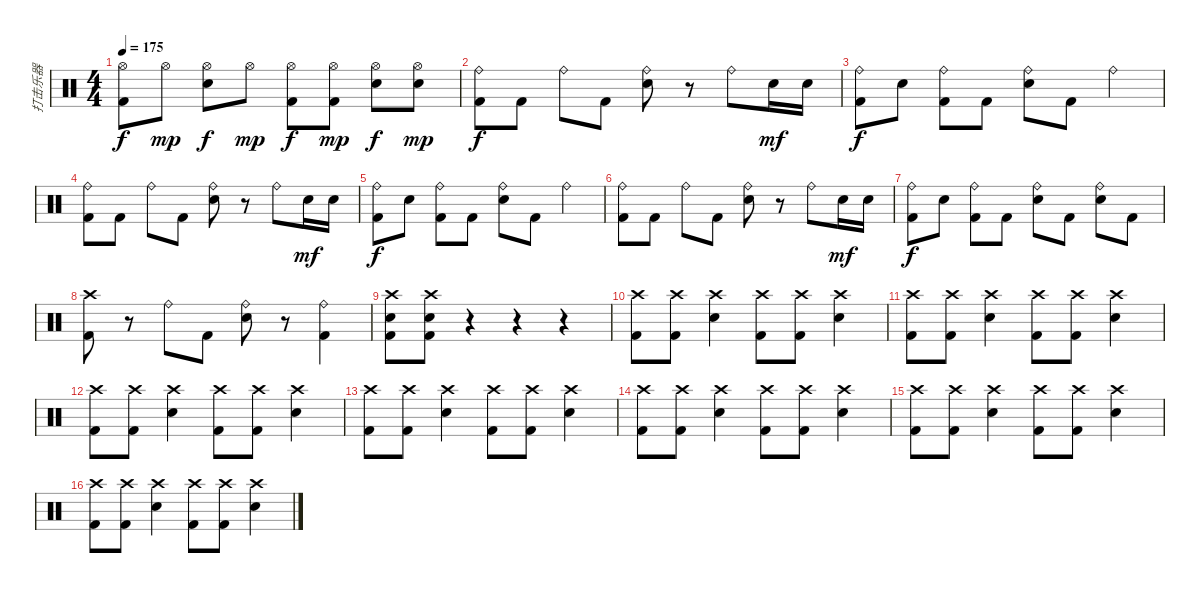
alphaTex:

\track ("打击乐器" "打击乐器") {instrument percussion}
\staff {score}
\articulation defaults
\ts (4 4)
\tempo 175
\clef neutral
\ks c
("Hi-Hat (open)" "Kick (hit) 2").8{dy f} "Hi-Hat (open)".8{dy mp} ("Hi-Hat (open)" "Electric Snare (hit)").8{dy f} "Hi-Hat (open)".8{dy mp} ("Hi-Hat (open)" "Kick (hit) 2").8{dy f} ("Hi-Hat (open)" "Kick (hit) 2").8{dy mp} ("Hi-Hat (open)" "Electric Snare (hit)").8{dy f} ("Hi-Hat (open)" "Electric Snare (hit)").8{dy mp} |
("Ride (bell)" "Kick (hit) 2").8{dy f} "Kick (hit) 2".8 "Ride (bell)".8 "Kick (hit) 2".8 ("Ride (bell)" "Electric Snare (hit)").8 r.8 "Ride (bell)".8 "Electric Snare (hit)".16{dy mf} "Electric Snare (hit)".16 |
("Ride (bell)" "Kick (hit) 2").8{dy f} "Electric Snare (hit)".8 ("Ride (bell)" "Kick (hit) 2").8 "Kick (hit) 2".8 ("Ride (bell)" "Electric Snare (hit)").8 "Kick (hit) 2".8 "Ride (bell)".4 |
("Ride (bell)" "Kick (hit) 2").8 "Kick (hit) 2".8 "Ride (bell)".8 "Kick (hit) 2".8 ("Ride (bell)" "Electric Snare (hit)").8 r.8 "Ride (bell)".8 "Electric Snare (hit)".16{dy mf} "Electric Snare (hit)".16 |
("Ride (bell)" "Kick (hit) 2").8{dy f} "Electric Snare (hit)".8 ("Ride (bell)" "Kick (hit) 2").8 "Kick (hit) 2".8 ("Ride (bell)" "Electric Snare (hit)").8 "Kick (hit) 2".8 "Ride (bell)".4 |
("Ride (bell)" "Kick (hit) 2").8 "Kick (hit) 2".8 "Ride (bell)".8 "Kick (hit) 2".8 ("Ride (bell)" "Electric Snare (hit)").8 r.8 "Ride (bell)".8 "Electric Snare (hit)".16{dy mf} "Electric Snare (hit)".16 |
("Ride (bell)" "Kick (hit) 2").8{dy f} "Electric Snare (hit)".8 ("Ride (bell)" "Kick (hit) 2").8 "Kick (hit) 2".8 ("Ride (bell)" "Electric Snare (hit)").8 "Kick (hit) 2".8 ("Ride (bell)" "Electric Snare (hit)").8 "Kick (hit) 2".8 |
("Crash high (hit)" "Kick (hit) 2").8 r.8 "Ride (bell)".8 "Kick (hit) 2".8 ("Ride (bell)" "Electric Snare (hit)").8 r.8 ("Ride (bell)" "Kick (hit) 2").4 |
("Crash high (hit)" "Electric Snare (hit)" "Kick (hit) 2").8 ("Crash high (hit)" "Electric Snare (hit)" "Kick (hit) 2").8 r.4 r.4 r.4 |
("Crash high (hit)" "Kick (hit) 2").8 ("Crash high (hit)" "Kick (hit) 2").8 ("Crash high (hit)" "Electric Snare (hit)").4 ("Crash high (hit)" "Kick (hit) 2").8 ("Crash high (hit)" "Kick (hit) 2").8 ("Crash high (hit)" "Electric Snare (hit)").4 |
("Crash high (hit)" "Kick (hit) 2").8 ("Crash high (hit)" "Kick (hit) 2").8 ("Crash high (hit)" "Electric Snare (hit)").4 ("Crash high (hit)" "Kick (hit) 2").8 ("Crash high (hit)" "Kick (hit) 2").8 ("Crash high (hit)" "Electric Snare (hit)").4 |
("Crash high (hit)" "Kick (hit) 2").8 ("Crash high (hit)" "Kick (hit) 2").8 ("Crash high (hit)" "Electric Snare (hit)").4 ("Crash high (hit)" "Kick (hit) 2").8 ("Crash high (hit)" "Kick (hit) 2").8 ("Crash high (hit)" "Electric Snare (hit)").4 |
("Crash high (hit)" "Kick (hit) 2").8 ("Crash high (hit)" "Kick (hit) 2").8 ("Crash high (hit)" "Electric Snare (hit)").4 ("Crash high (hit)" "Kick (hit) 2").8 ("Crash high (hit)" "Kick (hit) 2").8 ("Crash high (hit)" "Electric Snare (hit)").4 |
("Crash high (hit)" "Kick (hit) 2").8 ("Crash high (hit)" "Kick (hit) 2").8 ("Crash high (hit)" "Electric Snare (hit)").4 ("Crash high (hit)" "Kick (hit) 2").8 ("Crash high (hit)" "Kick (hit) 2").8 ("Crash high (hit)" "Electric Snare (hit)").4 |
("Crash high (hit)" "Kick (hit) 2").8 ("Crash high (hit)" "Kick (hit) 2").8 ("Crash high (hit)" "Electric Snare (hit)").4 ("Crash high (hit)" "Kick (hit) 2").8 ("Crash high (hit)" "Kick (hit) 2").8 ("Crash high (hit)" "Electric Snare (hit)").4 |
("Crash high (hit)" "Kick (hit) 2").8 ("Crash high (hit)" "Kick (hit) 2").8 ("Crash high (hit)" "Electric Snare (hit)").4 ("Crash high (hit)" "Kick (hit) 2").8 ("Crash high (hit)" "Kick (hit) 2").8 ("Crash high (hit)" "Electric Snare (hit)").4
